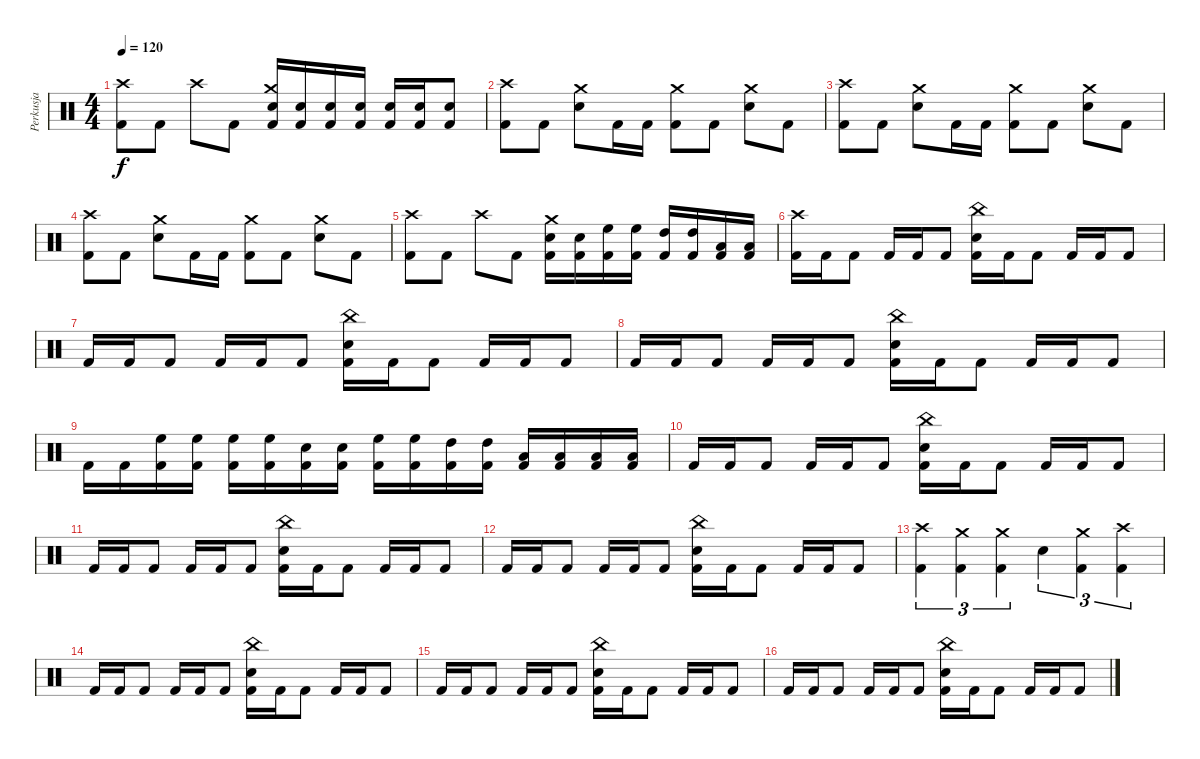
\track ("Perkusja" "Perkusja") {instrument percussion}
\staff {score}
\articulation defaults
\ts (4 4)
\tempo 120
\clef neutral
\ks c
("Crash high (hit)" "Kick (hit) 2").8{dy f} "Kick (hit) 2".8 "Crash high (hit)".8 "Kick (hit) 2".8 ("Crash medium (hit)" "Electric Snare (hit)" "Kick (hit) 2").16 ("Electric Snare (hit)" "Kick (hit) 2").16 ("Electric Snare (hit)" "Kick (hit) 2").16 ("Electric Snare (hit)" "Kick (hit) 2").16 ("Electric Snare (hit)" "Kick (hit) 2").16 ("Electric Snare (hit)" "Kick (hit) 2").16 ("Electric Snare (hit)" "Kick (hit) 2").8 |
("Crash high (hit)" "Kick (hit) 2").8 "Kick (hit) 2".8 ("Crash medium (hit)" "Electric Snare (hit)").8 "Kick (hit) 2".16 "Kick (hit) 2".16 ("Crash medium (hit)" "Kick (hit) 2").8 "Kick (hit) 2".8 ("Crash medium (hit)" "Electric Snare (hit)").8 "Kick (hit) 2".8 |
("Crash high (hit)" "Kick (hit) 2").8 "Kick (hit) 2".8 ("Crash medium (hit)" "Electric Snare (hit)").8 "Kick (hit) 2".16 "Kick (hit) 2".16 ("Crash medium (hit)" "Kick (hit) 2").8 "Kick (hit) 2".8 ("Crash medium (hit)" "Electric Snare (hit)").8 "Kick (hit) 2".8 |
("Crash high (hit)" "Kick (hit) 2").8 "Kick (hit) 2".8 ("Crash medium (hit)" "Electric Snare (hit)").8 "Kick (hit) 2".16 "Kick (hit) 2".16 ("Crash medium (hit)" "Kick (hit) 2").8 "Kick (hit) 2".8 ("Crash medium (hit)" "Electric Snare (hit)").8 "Kick (hit) 2".8 |
("Crash high (hit)" "Kick (hit) 2").8 "Kick (hit) 2".8 "Crash high (hit)".8 "Kick (hit) 2".8 ("Crash medium (hit)" "Electric Snare (hit)" "Kick (hit) 2").16 ("Electric Snare (hit)" "Kick (hit) 2").16 ("High Floor Tom (hit)" "Kick (hit) 2").16 ("High Floor Tom (hit)" "Kick (hit) 2").16 ("High Tom (hit)" "Kick (hit) 2").16 ("High Tom (hit)" "Kick (hit) 2").16 ("Low Floor Tom (hit)" "Kick (hit) 2").16 ("Low Floor Tom (hit)" "Kick (hit) 2").16 |
("Crash high (hit)" "Kick (hit) 2").16 "Kick (hit) 2".16 "Kick (hit) 2".8 "Kick (hit) 2".16 "Kick (hit) 2".16 "Kick (hit) 2".8 ("China (hit)" "Electric Snare (hit)" "Kick (hit) 2").16 "Kick (hit) 2".16 "Kick (hit) 2".8 "Kick (hit) 2".16 "Kick (hit) 2".16 "Kick (hit) 2".8 |
"Kick (hit) 2".16 "Kick (hit) 2".16 "Kick (hit) 2".8 "Kick (hit) 2".16 "Kick (hit) 2".16 "Kick (hit) 2".8 ("China (hit)" "Electric Snare (hit)" "Kick (hit) 2").16 "Kick (hit) 2".16 "Kick (hit) 2".8 "Kick (hit) 2".16 "Kick (hit) 2".16 "Kick (hit) 2".8 |
"Kick (hit) 2".16 "Kick (hit) 2".16 "Kick (hit) 2".8 "Kick (hit) 2".16 "Kick (hit) 2".16 "Kick (hit) 2".8 ("China (hit)" "Electric Snare (hit)" "Kick (hit) 2").16 "Kick (hit) 2".16 "Kick (hit) 2".8 "Kick (hit) 2".16 "Kick (hit) 2".16 "Kick (hit) 2".8 |
"Kick (hit) 2".16 "Kick (hit) 2".16 ("High Floor Tom (hit)" "Kick (hit) 2").16 ("High Floor Tom (hit)" "Kick (hit) 2").16 ("High Floor Tom (hit)" "Kick (hit) 2").16 ("High Floor Tom (hit)" "Kick (hit) 2").16 ("Electric Snare (hit)" "Kick (hit) 2").16 ("Electric Snare (hit)" "Kick (hit) 2").16 ("High Floor Tom (hit)" "Kick (hit) 2").16 ("High Floor Tom (hit)" "Kick (hit) 2").16 ("High Tom (hit)" "Kick (hit) 2").16 ("High Tom (hit)" "Kick (hit) 2").16 ("Low Floor Tom (hit)" "Kick (hit) 2").16 ("Low Floor Tom (hit)" "Kick (hit) 2").16 ("Low Floor Tom (hit)" "Kick (hit) 2").16 ("Low Floor Tom (hit)" "Kick (hit) 2").16 |
"Kick (hit) 2".16 "Kick (hit) 2".16 "Kick (hit) 2".8 "Kick (hit) 2".16 "Kick (hit) 2".16 "Kick (hit) 2".8 ("China (hit)" "Electric Snare (hit)" "Kick (hit) 2").16 "Kick (hit) 2".16 "Kick (hit) 2".8 "Kick (hit) 2".16 "Kick (hit) 2".16 "Kick (hit) 2".8 |
"Kick (hit) 2".16 "Kick (hit) 2".16 "Kick (hit) 2".8 "Kick (hit) 2".16 "Kick (hit) 2".16 "Kick (hit) 2".8 ("China (hit)" "Electric Snare (hit)" "Kick (hit) 2").16 "Kick (hit) 2".16 "Kick (hit) 2".8 "Kick (hit) 2".16 "Kick (hit) 2".16 "Kick (hit) 2".8 |
"Kick (hit) 2".16 "Kick (hit) 2".16 "Kick (hit) 2".8 "Kick (hit) 2".16 "Kick (hit) 2".16 "Kick (hit) 2".8 ("China (hit)" "Electric Snare (hit)" "Kick (hit) 2").16 "Kick (hit) 2".16 "Kick (hit) 2".8 "Kick (hit) 2".16 "Kick (hit) 2".16 "Kick (hit) 2".8 |
("Crash high (hit)" "Kick (hit) 2").4{tu (3 2)} ("Crash medium (hit)" "Kick (hit) 2").4{tu (3 2)} ("Crash medium (hit)" "Kick (hit) 2").4{tu (3 2)} "Electric Snare (hit)".4{tu (3 2)} ("Crash medium (hit)" "Kick (hit) 2").4{tu (3 2)} ("Crash high (hit)" "Kick (hit) 2").4{tu (3 2)} |
"Kick (hit) 2".16 "Kick (hit) 2".16 "Kick (hit) 2".8 "Kick (hit) 2".16 "Kick (hit) 2".16 "Kick (hit) 2".8 ("China (hit)" "Electric Snare (hit)" "Kick (hit) 2").16 "Kick (hit) 2".16 "Kick (hit) 2".8 "Kick (hit) 2".16 "Kick (hit) 2".16 "Kick (hit) 2".8 |
"Kick (hit) 2".16 "Kick (hit) 2".16 "Kick (hit) 2".8 "Kick (hit) 2".16 "Kick (hit) 2".16 "Kick (hit) 2".8 ("China (hit)" "Electric Snare (hit)" "Kick (hit) 2").16 "Kick (hit) 2".16 "Kick (hit) 2".8 "Kick (hit) 2".16 "Kick (hit) 2".16 "Kick (hit) 2".8 |
"Kick (hit) 2".16 "Kick (hit) 2".16 "Kick (hit) 2".8 "Kick (hit) 2".16 "Kick (hit) 2".16 "Kick (hit) 2".8 ("China (hit)" "Electric Snare (hit)" "Kick (hit) 2").16 "Kick (hit) 2".16 "Kick (hit) 2".8 "Kick (hit) 2".16 "Kick (hit) 2".16 "Kick (hit) 2".8
